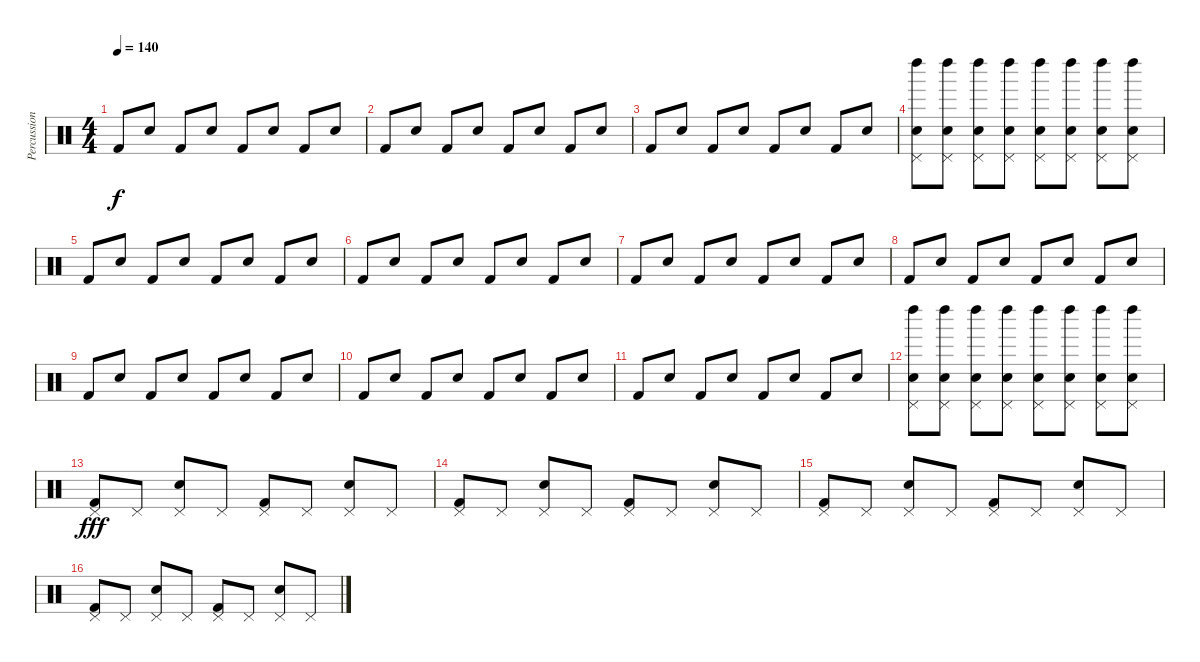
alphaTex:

\track ("Percussions" "Percussion") {instrument percussion}
\staff {score}
\articulation defaults
\ts (4 4)
\tempo 140
\clef neutral
\ks c "Kick (hit) 2".8{dy f} "Electric Snare (hit)".8 "Kick (hit) 2".8 "Electric Snare (hit)".8 "Kick (hit) 2".8 "Electric Snare (hit)".8 "Kick (hit) 2".8 "Electric Snare (hit)".8
|
"Kick (hit) 2".8 "Electric Snare (hit)".8 "Kick (hit) 2".8 "Electric Snare (hit)".8 "Kick (hit) 2".8 "Electric Snare (hit)".8 "Kick (hit) 2".8 "Electric Snare (hit)".8 |
"Kick (hit) 2".8 "Electric Snare (hit)".8 "Kick (hit) 2".8 "Electric Snare (hit)".8 "Kick (hit) 2".8 "Electric Snare (hit)".8 "Kick (hit) 2".8 "Electric Snare (hit)".8 |
("Pedal Hi-Hat (hit)" "Left Maraca (hit)" "Electric Snare (hit)").8 ("Pedal Hi-Hat (hit)" "Left Maraca (hit)" "Electric Snare (hit)").8 ("Pedal Hi-Hat (hit)" "Left Maraca (hit)" "Electric Snare (hit)").8 ("Pedal Hi-Hat (hit)" "Left Maraca (hit)" "Electric Snare (hit)").8 ("Pedal Hi-Hat (hit)" "Left Maraca (hit)" "Electric Snare (hit)").8 ("Pedal Hi-Hat (hit)" "Left Maraca (hit)" "Electric Snare (hit)").8 ("Pedal Hi-Hat (hit)" "Left Maraca (hit)" "Electric Snare (hit)").8 ("Pedal Hi-Hat (hit)" "Left Maraca (hit)" "Electric Snare (hit)").8 |
"Kick (hit) 2".8 "Electric Snare (hit)".8 "Kick (hit) 2".8 "Electric Snare (hit)".8 "Kick (hit) 2".8 "Electric Snare (hit)".8 "Kick (hit) 2".8 "Electric Snare (hit)".8 |
"Kick (hit) 2".8 "Electric Snare (hit)".8 "Kick (hit) 2".8 "Electric Snare (hit)".8 "Kick (hit) 2".8 "Electric Snare (hit)".8 "Kick (hit) 2".8 "Electric Snare (hit)".8 |
"Kick (hit) 2".8 "Electric Snare (hit)".8 "Kick (hit) 2".8 "Electric Snare (hit)".8 "Kick (hit) 2".8 "Electric Snare (hit)".8 "Kick (hit) 2".8 "Electric Snare (hit)".8 |
"Kick (hit) 2".8 "Electric Snare (hit)".8 "Kick (hit) 2".8 "Electric Snare (hit)".8 "Kick (hit) 2".8 "Electric Snare (hit)".8 "Kick (hit) 2".8 "Electric Snare (hit)".8 |
"Kick (hit) 2".8 "Electric Snare (hit)".8 "Kick (hit) 2".8 "Electric Snare (hit)".8 "Kick (hit) 2".8 "Electric Snare (hit)".8 "Kick (hit) 2".8 "Electric Snare (hit)".8 |
"Kick (hit) 2".8 "Electric Snare (hit)".8 "Kick (hit) 2".8 "Electric Snare (hit)".8 "Kick (hit) 2".8 "Electric Snare (hit)".8 "Kick (hit) 2".8 "Electric Snare (hit)".8 |
"Kick (hit) 2".8 "Electric Snare (hit)".8 "Kick (hit) 2".8 "Electric Snare (hit)".8 "Kick (hit) 2".8 "Electric Snare (hit)".8 "Kick (hit) 2".8 "Electric Snare (hit)".8 |
("Pedal Hi-Hat (hit)" "Left Maraca (hit)" "Electric Snare (hit)").8 ("Pedal Hi-Hat (hit)" "Left Maraca (hit)" "Electric Snare (hit)").8 ("Pedal Hi-Hat (hit)" "Left Maraca (hit)" "Electric Snare (hit)").8 ("Pedal Hi-Hat (hit)" "Left Maraca (hit)" "Electric Snare (hit)").8 ("Pedal Hi-Hat (hit)" "Left Maraca (hit)" "Electric Snare (hit)").8 ("Pedal Hi-Hat (hit)" "Left Maraca (hit)" "Electric Snare (hit)").8 ("Pedal Hi-Hat (hit)" "Left Maraca (hit)" "Electric Snare (hit)").8 ("Pedal Hi-Hat (hit)" "Left Maraca (hit)" "Electric Snare (hit)").8 |
("Pedal Hi-Hat (hit)" "Kick (hit) 2").8{dy fff} "Pedal Hi-Hat (hit)".8 ("Pedal Hi-Hat (hit)" "Electric Snare (hit)").8 "Pedal Hi-Hat (hit)".8 ("Pedal Hi-Hat (hit)" "Kick (hit) 2").8 "Pedal Hi-Hat (hit)".8 ("Pedal Hi-Hat (hit)" "Electric Snare (hit)").8 "Pedal Hi-Hat (hit)".8 |
("Pedal Hi-Hat (hit)" "Kick (hit) 2").8 "Pedal Hi-Hat (hit)".8 ("Pedal Hi-Hat (hit)" "Electric Snare (hit)").8 "Pedal Hi-Hat (hit)".8 ("Pedal Hi-Hat (hit)" "Kick (hit) 2").8 "Pedal Hi-Hat (hit)".8 ("Pedal Hi-Hat (hit)" "Electric Snare (hit)").8 "Pedal Hi-Hat (hit)".8 |
("Pedal Hi-Hat (hit)" "Kick (hit) 2").8 "Pedal Hi-Hat (hit)".8 ("Pedal Hi-Hat (hit)" "Electric Snare (hit)").8 "Pedal Hi-Hat (hit)".8 ("Pedal Hi-Hat (hit)" "Kick (hit) 2").8 "Pedal Hi-Hat (hit)".8 ("Pedal Hi-Hat (hit)" "Electric Snare (hit)").8 "Pedal Hi-Hat (hit)".8 |
("Pedal Hi-Hat (hit)" "Kick (hit) 2").8 "Pedal Hi-Hat (hit)".8 ("Pedal Hi-Hat (hit)" "Electric Snare (hit)").8 "Pedal Hi-Hat (hit)".8 ("Pedal Hi-Hat (hit)" "Kick (hit) 2").8 "Pedal Hi-Hat (hit)".8 ("Pedal Hi-Hat (hit)" "Electric Snare (hit)").8 "Pedal Hi-Hat (hit)".8
